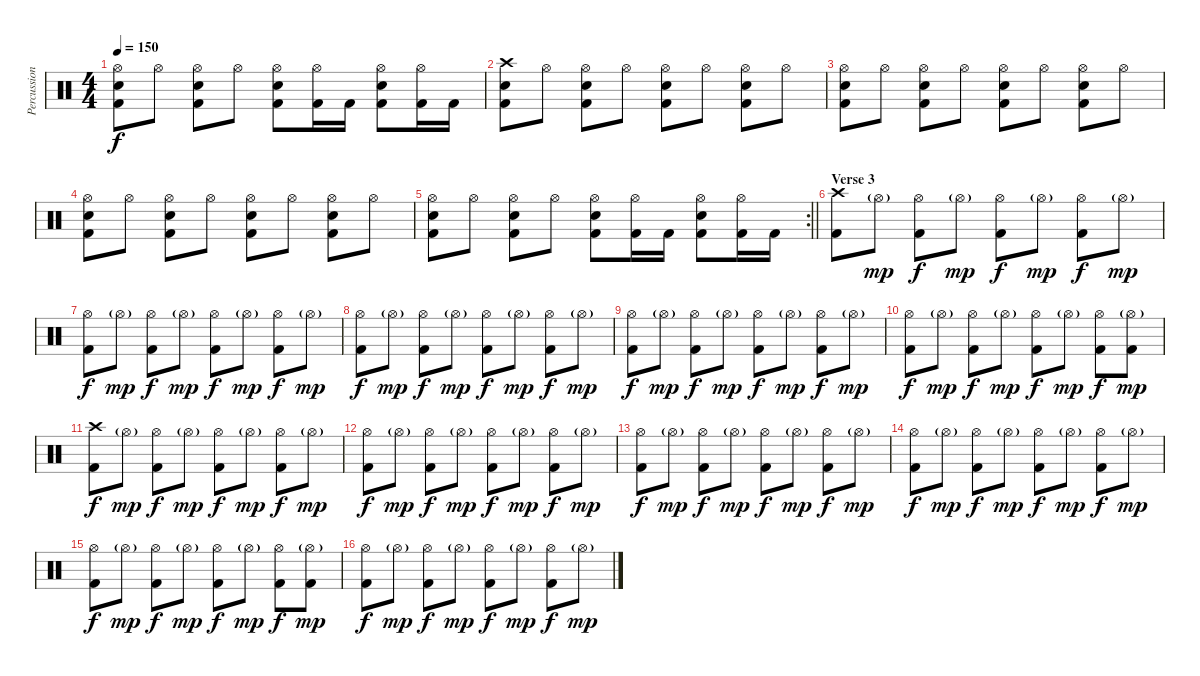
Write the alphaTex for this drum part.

\track ("Percussion" "Percussion") {instrument percussion}
\staff {score}
\articulation defaults
\ts (4 4)
\tempo 150
\clef neutral
\ks c
("Hi-Hat (open)" "Snare (hit) 2" "Kick (hit) 2").8{dy f} "Hi-Hat (open)".8 ("Hi-Hat (open)" "Snare (hit) 2" "Kick (hit) 2").8 "Hi-Hat (open)".8 ("Hi-Hat (open)" "Snare (hit) 2" "Kick (hit) 2").8 ("Hi-Hat (open)" "Kick (hit) 2").16 "Kick (hit) 2".16 ("Hi-Hat (open)" "Snare (hit) 2" "Kick (hit) 2").8 ("Hi-Hat (open)" "Kick (hit) 2").16 "Kick (hit) 2".16 |
("Crash high (hit)" "Snare (hit) 2" "Kick (hit) 2").8 "Hi-Hat (open)".8 ("Hi-Hat (open)" "Snare (hit) 2" "Kick (hit) 2").8 "Hi-Hat (open)".8 ("Hi-Hat (open)" "Snare (hit) 2" "Kick (hit) 2").8 "Hi-Hat (open)".8 ("Hi-Hat (open)" "Snare (hit) 2" "Kick (hit) 2").8 "Hi-Hat (open)".8 |
("Hi-Hat (open)" "Snare (hit) 2" "Kick (hit) 2").8 "Hi-Hat (open)".8 ("Hi-Hat (open)" "Snare (hit) 2" "Kick (hit) 2").8 "Hi-Hat (open)".8 ("Hi-Hat (open)" "Snare (hit) 2" "Kick (hit) 2").8 "Hi-Hat (open)".8 ("Hi-Hat (open)" "Snare (hit) 2" "Kick (hit) 2").8 "Hi-Hat (open)".8 |
("Hi-Hat (open)" "Snare (hit) 2" "Kick (hit) 2").8 "Hi-Hat (open)".8 ("Hi-Hat (open)" "Snare (hit) 2" "Kick (hit) 2").8 "Hi-Hat (open)".8 ("Hi-Hat (open)" "Snare (hit) 2" "Kick (hit) 2").8 "Hi-Hat (open)".8 ("Hi-Hat (open)" "Snare (hit) 2" "Kick (hit) 2").8 "Hi-Hat (open)".8 |
\rc 2
\barLineRight lightlight
("Hi-Hat (open)" "Snare (hit) 2" "Kick (hit) 2").8 "Hi-Hat (open)".8 ("Hi-Hat (open)" "Snare (hit) 2" "Kick (hit) 2").8 "Hi-Hat (open)".8 ("Hi-Hat (open)" "Snare (hit) 2" "Kick (hit) 2").8 ("Hi-Hat (open)" "Kick (hit) 2").16 "Kick (hit) 2".16 ("Hi-Hat (open)" "Snare (hit) 2" "Kick (hit) 2").8 ("Hi-Hat (open)" "Kick (hit) 2").16 "Kick (hit) 2".16 |
\section ("" "Verse 3")
("Crash high (hit)" "Kick (hit) 2").8 "Hi-Hat (open)"{g}.8{dy mp} ("Hi-Hat (open)" "Kick (hit) 2").8{dy f} "Hi-Hat (open)"{g}.8{dy mp} ("Hi-Hat (open)" "Kick (hit) 2").8{dy f} "Hi-Hat (open)"{g}.8{dy mp} ("Hi-Hat (open)" "Kick (hit) 2").8{dy f} "Hi-Hat (open)"{g}.8{dy mp} |
("Hi-Hat (open)" "Kick (hit) 2").8{dy f} "Hi-Hat (open)"{g}.8{dy mp} ("Hi-Hat (open)" "Kick (hit) 2").8{dy f} "Hi-Hat (open)"{g}.8{dy mp} ("Hi-Hat (open)" "Kick (hit) 2").8{dy f} "Hi-Hat (open)"{g}.8{dy mp} ("Hi-Hat (open)" "Kick (hit) 2").8{dy f} "Hi-Hat (open)"{g}.8{dy mp} |
("Hi-Hat (open)" "Kick (hit) 2").8{dy f} "Hi-Hat (open)"{g}.8{dy mp} ("Hi-Hat (open)" "Kick (hit) 2").8{dy f} "Hi-Hat (open)"{g}.8{dy mp} ("Hi-Hat (open)" "Kick (hit) 2").8{dy f} "Hi-Hat (open)"{g}.8{dy mp} ("Hi-Hat (open)" "Kick (hit) 2").8{dy f} "Hi-Hat (open)"{g}.8{dy mp} |
("Hi-Hat (open)" "Kick (hit) 2").8{dy f} "Hi-Hat (open)"{g}.8{dy mp} ("Hi-Hat (open)" "Kick (hit) 2").8{dy f} "Hi-Hat (open)"{g}.8{dy mp} ("Hi-Hat (open)" "Kick (hit) 2").8{dy f} "Hi-Hat (open)"{g}.8{dy mp} ("Hi-Hat (open)" "Kick (hit) 2").8{dy f} "Hi-Hat (open)"{g}.8{dy mp} |
("Hi-Hat (open)" "Kick (hit) 2").8{dy f} "Hi-Hat (open)"{g}.8{dy mp} ("Hi-Hat (open)" "Kick (hit) 2").8{dy f} "Hi-Hat (open)"{g}.8{dy mp} ("Hi-Hat (open)" "Kick (hit) 2").8{dy f} "Hi-Hat (open)"{g}.8{dy mp} ("Hi-Hat (open)" "Kick (hit) 2").8{dy f} ("Hi-Hat (open)"{g} "Kick (hit) 2").8{dy mp} |
("Crash high (hit)" "Kick (hit) 2").8{dy f} "Hi-Hat (open)"{g}.8{dy mp} ("Hi-Hat (open)" "Kick (hit) 2").8{dy f} "Hi-Hat (open)"{g}.8{dy mp} ("Hi-Hat (open)" "Kick (hit) 2").8{dy f} "Hi-Hat (open)"{g}.8{dy mp} ("Hi-Hat (open)" "Kick (hit) 2").8{dy f} "Hi-Hat (open)"{g}.8{dy mp} |
("Hi-Hat (open)" "Kick (hit) 2").8{dy f} "Hi-Hat (open)"{g}.8{dy mp} ("Hi-Hat (open)" "Kick (hit) 2").8{dy f} "Hi-Hat (open)"{g}.8{dy mp} ("Hi-Hat (open)" "Kick (hit) 2").8{dy f} "Hi-Hat (open)"{g}.8{dy mp} ("Hi-Hat (open)" "Kick (hit) 2").8{dy f} "Hi-Hat (open)"{g}.8{dy mp} |
("Hi-Hat (open)" "Kick (hit) 2").8{dy f} "Hi-Hat (open)"{g}.8{dy mp} ("Hi-Hat (open)" "Kick (hit) 2").8{dy f} "Hi-Hat (open)"{g}.8{dy mp} ("Hi-Hat (open)" "Kick (hit) 2").8{dy f} "Hi-Hat (open)"{g}.8{dy mp} ("Hi-Hat (open)" "Kick (hit) 2").8{dy f} "Hi-Hat (open)"{g}.8{dy mp} |
("Hi-Hat (open)" "Kick (hit) 2").8{dy f} "Hi-Hat (open)"{g}.8{dy mp} ("Hi-Hat (open)" "Kick (hit) 2").8{dy f} "Hi-Hat (open)"{g}.8{dy mp} ("Hi-Hat (open)" "Kick (hit) 2").8{dy f} "Hi-Hat (open)"{g}.8{dy mp} ("Hi-Hat (open)" "Kick (hit) 2").8{dy f} "Hi-Hat (open)"{g}.8{dy mp} |
("Hi-Hat (open)" "Kick (hit) 2").8{dy f} "Hi-Hat (open)"{g}.8{dy mp} ("Hi-Hat (open)" "Kick (hit) 2").8{dy f} "Hi-Hat (open)"{g}.8{dy mp} ("Hi-Hat (open)" "Kick (hit) 2").8{dy f} "Hi-Hat (open)"{g}.8{dy mp} ("Hi-Hat (open)" "Kick (hit) 2").8{dy f} ("Hi-Hat (open)"{g} "Kick (hit) 2").8{dy mp} |
("Hi-Hat (open)" "Kick (hit) 2").8{dy f} "Hi-Hat (open)"{g}.8{dy mp} ("Hi-Hat (open)" "Kick (hit) 2").8{dy f} "Hi-Hat (open)"{g}.8{dy mp} ("Hi-Hat (open)" "Kick (hit) 2").8{dy f} "Hi-Hat (open)"{g}.8{dy mp} ("Hi-Hat (open)" "Kick (hit) 2").8{dy f} "Hi-Hat (open)"{g}.8{dy mp}
